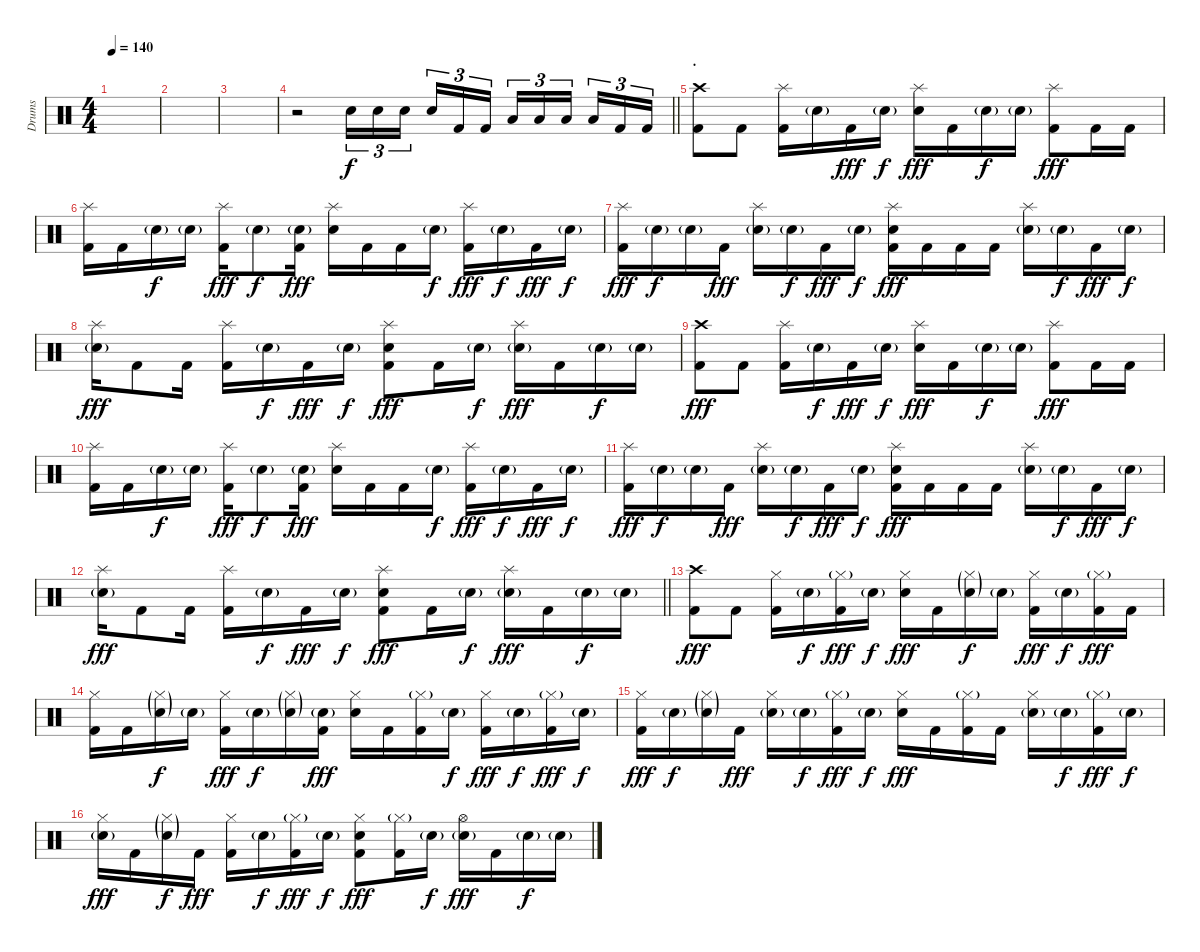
\track ("Drums" "Drums") {instrument percussion}
\staff {score}
\articulation defaults
\ts (4 4)
\tempo 140
\clef neutral
\ks c
|
|
|
\barLineRight lightlight
r.2 "Electric Snare (hit)".16{tu (3 2)} "Electric Snare (hit)".16{tu (3 2)} "Electric Snare (hit)".16{tu (3 2)} "Electric Snare (hit)".16{tu (3 2)} "Kick (hit) 2".16{tu (3 2)} "Kick (hit) 2".16{tu (3 2)} "Low Floor Tom (hit)".16{tu (3 2)} "Low Floor Tom (hit)".16{tu (3 2)} "Low Floor Tom (hit)".16{tu (3 2)} "Low Floor Tom (hit)".16{tu (3 2)} "Kick (hit) 2".16{tu (3 2)} "Kick (hit) 2".16{tu (3 2)} |
\section ("" ".")
("Crash high (hit)" "Kick (hit) 2").8 "Kick (hit) 2".8 ("Splash (hit)" "Kick (hit) 2").16 "Electric Snare (hit)"{g}.16{dy f} "Kick (hit) 2".16{dy fff} "Electric Snare (hit)"{g}.16{dy f} ("Splash (hit)" "Electric Snare (hit)").16{dy fff} "Kick (hit) 2".16 "Electric Snare (hit)"{g}.16{dy f} "Electric Snare (hit)"{g}.16 ("Splash (hit)" "Kick (hit) 2").8{dy fff} "Kick (hit) 2".16 "Kick (hit) 2".16 |
("Splash (hit)" "Kick (hit) 2").16 "Kick (hit) 2".16 "Electric Snare (hit)"{g}.16{dy f} "Electric Snare (hit)"{g}.16 ("Splash (hit)" "Kick (hit) 2").16{dy fff} "Electric Snare (hit)"{g}.8{dy f} ("Electric Snare (hit)"{g} "Kick (hit) 2").16{dy fff} ("Splash (hit)" "Electric Snare (hit)").16 "Kick (hit) 2".16 "Kick (hit) 2".16 "Electric Snare (hit)"{g}.16{dy f} ("Splash (hit)" "Kick (hit) 2").16{dy fff} "Electric Snare (hit)"{g}.16{dy f} "Kick (hit) 2".16{dy fff} "Electric Snare (hit)"{g}.16{dy f} |
("Splash (hit)" "Kick (hit) 2").16{dy fff} "Electric Snare (hit)"{g}.16{dy f} "Electric Snare (hit)"{g}.16 "Kick (hit) 2".16{dy fff} ("Splash (hit)" "Electric Snare (hit)"{g}).16 "Electric Snare (hit)"{g}.16{dy f} "Kick (hit) 2".16{dy fff} "Electric Snare (hit)"{g}.16{dy f} ("Splash (hit)" "Electric Snare (hit)" "Kick (hit) 2").16{dy fff} "Kick (hit) 2".16 "Kick (hit) 2".16 "Kick (hit) 2".16 ("Splash (hit)" "Electric Snare (hit)"{g}).16 "Electric Snare (hit)"{g}.16{dy f} "Kick (hit) 2".16{dy fff} "Electric Snare (hit)"{g}.16{dy f} |
("Splash (hit)" "Electric Snare (hit)"{g}).16{dy fff} "Kick (hit) 2".8 "Kick (hit) 2".16 ("Splash (hit)" "Kick (hit) 2").16 "Electric Snare (hit)"{g}.16{dy f} "Kick (hit) 2".16{dy fff} "Electric Snare (hit)"{g}.16{dy f} ("Splash (hit)" "Electric Snare (hit)" "Kick (hit) 2").8{dy fff} "Kick (hit) 2".16 "Electric Snare (hit)"{g}.16{dy f} ("Splash (hit)" "Electric Snare (hit)"{g}).16{dy fff} "Kick (hit) 2".16 "Electric Snare (hit)"{g}.16{dy f} "Electric Snare (hit)"{g}.16 |
("Crash high (hit)" "Kick (hit) 2").8{dy fff} "Kick (hit) 2".8 ("Splash (hit)" "Kick (hit) 2").16 "Electric Snare (hit)"{g}.16{dy f} "Kick (hit) 2".16{dy fff} "Electric Snare (hit)"{g}.16{dy f} ("Splash (hit)" "Electric Snare (hit)").16{dy fff} "Kick (hit) 2".16 "Electric Snare (hit)"{g}.16{dy f} "Electric Snare (hit)"{g}.16 ("Splash (hit)" "Kick (hit) 2").8{dy fff} "Kick (hit) 2".16 "Kick (hit) 2".16 |
("Splash (hit)" "Kick (hit) 2").16 "Kick (hit) 2".16 "Electric Snare (hit)"{g}.16{dy f} "Electric Snare (hit)"{g}.16 ("Splash (hit)" "Kick (hit) 2").16{dy fff} "Electric Snare (hit)"{g}.8{dy f} ("Electric Snare (hit)"{g} "Kick (hit) 2").16{dy fff} ("Splash (hit)" "Electric Snare (hit)").16 "Kick (hit) 2".16 "Kick (hit) 2".16 "Electric Snare (hit)"{g}.16{dy f} ("Splash (hit)" "Kick (hit) 2").16{dy fff} "Electric Snare (hit)"{g}.16{dy f} "Kick (hit) 2".16{dy fff} "Electric Snare (hit)"{g}.16{dy f} |
("Splash (hit)" "Kick (hit) 2").16{dy fff} "Electric Snare (hit)"{g}.16{dy f} "Electric Snare (hit)"{g}.16 "Kick (hit) 2".16{dy fff} ("Splash (hit)" "Electric Snare (hit)"{g}).16 "Electric Snare (hit)"{g}.16{dy f} "Kick (hit) 2".16{dy fff} "Electric Snare (hit)"{g}.16{dy f} ("Splash (hit)" "Electric Snare (hit)" "Kick (hit) 2").16{dy fff} "Kick (hit) 2".16 "Kick (hit) 2".16 "Kick (hit) 2".16 ("Splash (hit)" "Electric Snare (hit)"{g}).16 "Electric Snare (hit)"{g}.16{dy f} "Kick (hit) 2".16{dy fff} "Electric Snare (hit)"{g}.16{dy f} |
\barLineRight lightlight
("Splash (hit)" "Electric Snare (hit)"{g}).16{dy fff} "Kick (hit) 2".8 "Kick (hit) 2".16 ("Splash (hit)" "Kick (hit) 2").16 "Electric Snare (hit)"{g}.16{dy f} "Kick (hit) 2".16{dy fff} "Electric Snare (hit)"{g}.16{dy f} ("Splash (hit)" "Electric Snare (hit)" "Kick (hit) 2").8{dy fff} "Kick (hit) 2".16 "Electric Snare (hit)"{g}.16{dy f} ("Splash (hit)" "Electric Snare (hit)"{g}).16{dy fff} "Kick (hit) 2".16 "Electric Snare (hit)"{g}.16{dy f} "Electric Snare (hit)"{g}.16 |
\section ("" ".")
("Crash high (hit)" "Kick (hit) 2").8{dy fff} "Kick (hit) 2".8 ("Hi-Hat (closed)" "Kick (hit) 2").16 "Electric Snare (hit)"{g}.16{dy f} ("Hi-Hat (closed)"{g} "Kick (hit) 2").16{dy fff} "Electric Snare (hit)"{g}.16{dy f} ("Hi-Hat (closed)" "Electric Snare (hit)").16{dy fff} "Kick (hit) 2".16 ("Hi-Hat (closed)"{g} "Electric Snare (hit)"{g}).16{dy f} "Electric Snare (hit)"{g}.16 ("Hi-Hat (closed)" "Kick (hit) 2").16{dy fff} "Electric Snare (hit)"{g}.16{dy f} ("Hi-Hat (closed)"{g} "Kick (hit) 2").16{dy fff} "Kick (hit) 2".16 |
("Hi-Hat (closed)" "Kick (hit) 2").16 "Kick (hit) 2".16 ("Hi-Hat (closed)"{g} "Electric Snare (hit)"{g}).16{dy f} "Electric Snare (hit)"{g}.16 ("Hi-Hat (closed)" "Kick (hit) 2").16{dy fff} "Electric Snare (hit)"{g}.16{dy f} ("Hi-Hat (closed)"{g} "Electric Snare (hit)"{g}).16 ("Electric Snare (hit)"{g} "Kick (hit) 2").16{dy fff} ("Hi-Hat (closed)" "Electric Snare (hit)").16 "Kick (hit) 2".16 ("Hi-Hat (closed)"{g} "Kick (hit) 2").16 "Electric Snare (hit)"{g}.16{dy f} ("Hi-Hat (closed)" "Kick (hit) 2").16{dy fff} "Electric Snare (hit)"{g}.16{dy f} ("Hi-Hat (closed)"{g} "Kick (hit) 2").16{dy fff} "Electric Snare (hit)"{g}.16{dy f} |
("Hi-Hat (closed)" "Kick (hit) 2").16{dy fff} "Electric Snare (hit)"{g}.16{dy f} ("Hi-Hat (closed)"{g} "Electric Snare (hit)"{g}).16 "Kick (hit) 2".16{dy fff} ("Hi-Hat (closed)" "Electric Snare (hit)"{g}).16 "Electric Snare (hit)"{g}.16{dy f} ("Hi-Hat (closed)"{g} "Kick (hit) 2").16{dy fff} "Electric Snare (hit)"{g}.16{dy f} ("Hi-Hat (closed)" "Electric Snare (hit)").16{dy fff} "Kick (hit) 2".16 ("Hi-Hat (closed)"{g} "Kick (hit) 2").16 "Kick (hit) 2".16 ("Hi-Hat (closed)" "Electric Snare (hit)"{g}).16 "Electric Snare (hit)"{g}.16{dy f} ("Hi-Hat (closed)"{g} "Kick (hit) 2").16{dy fff} "Electric Snare (hit)"{g}.16{dy f} |
("Hi-Hat (closed)" "Electric Snare (hit)"{g}).16{dy fff} "Kick (hit) 2".16 ("Hi-Hat (closed)"{g} "Electric Snare (hit)"{g}).16{dy f} "Kick (hit) 2".16{dy fff} ("Hi-Hat (closed)" "Kick (hit) 2").16 "Electric Snare (hit)"{g}.16{dy f} ("Hi-Hat (closed)"{g} "Kick (hit) 2").16{dy fff} "Electric Snare (hit)"{g}.16{dy f} ("Hi-Hat (closed)" "Electric Snare (hit)" "Kick (hit) 2").8{dy fff} ("Hi-Hat (closed)"{g} "Kick (hit) 2").16 "Electric Snare (hit)"{g}.16{dy f} ("Hi-Hat (open)" "Electric Snare (hit)"{g}).16{dy fff} "Kick (hit) 2".16 "Electric Snare (hit)"{g}.16{dy f} "Electric Snare (hit)"{g}.16
